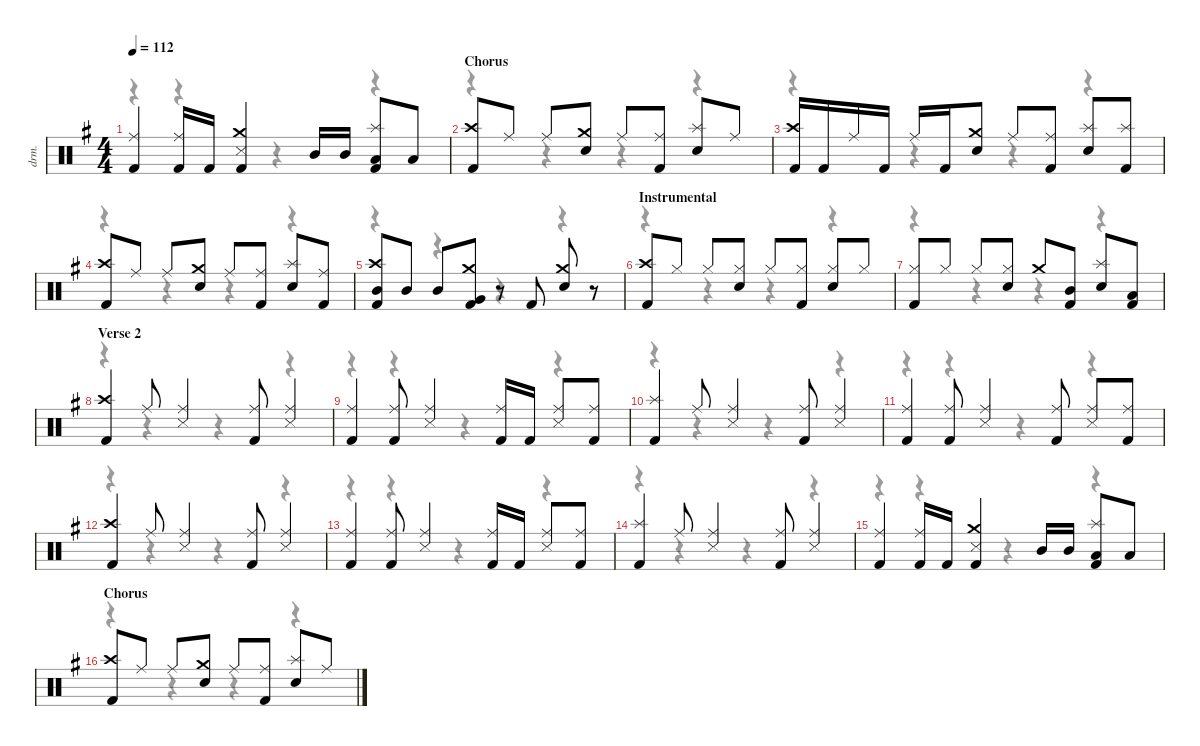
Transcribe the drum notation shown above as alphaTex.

\defaultSystemsLayout 4
\hideDynamics
\bracketExtendMode nobrackets
\track ("Drums" "drm.") {instrument percussion}
\staff {score}
\articulation defaults
\voice
\ts (4 4)
\tempo 112
\clef neutral
\ks g
("Kick (hit) 2"{acc forcenatural} "Ride (middle)"{acc forcenatural}).4{dy mf} ("Ride (middle)"{acc forcenatural} "Kick (hit) 2"{acc forcenatural}).16 "Kick (hit) 2"{acc forcenatural}.16 ("Snare (side stick) 3"{acc forcenatural} "Crash medium (hit)"{acc forcenatural} "Kick (hit) 2"{acc forcenatural}).4 "Mid Tom (hit)"{acc forcenatural}.16{dy f} "Mid Tom (hit)"{acc forcenatural}.16 ("Splash (hit)"{acc forcenatural} "Low Tom (hit)"{acc forcenatural} "Kick (hit) 2"{acc forcenatural}).8 "Low Tom (hit)"{acc forcenatural}.8 |
\section ("" "Chorus")
("Crash high (hit)"{acc forcenatural} "Kick (hit) 2"{acc forcenatural}).8{dy mf} "Ride (middle)"{acc forcenatural}.8 "Ride (middle)"{acc forcenatural}.8 ("Crash medium (hit)"{acc forcenatural} "Snare (hit) 2"{acc forcenatural}).8 "Ride (middle)"{acc forcenatural}.8 ("Ride (middle)"{acc forcenatural} "Kick (hit) 2"{acc forcenatural}).8 ("Splash (hit)"{acc forcenatural} "Snare (hit) 2"{acc forcenatural}).8 "Ride (middle)"{acc forcenatural}.8 |
("Crash high (hit)"{acc forcenatural} "Kick (hit) 2"{acc forcenatural}).16 "Kick (hit) 2"{acc forcenatural}.16{dy f} "Ride (middle)"{acc forcenatural}.16{dy mf} "Kick (hit) 2"{acc forcenatural}.16 "Ride (middle)"{acc forcenatural}.16 "Kick (hit) 2"{acc forcenatural}.16 ("Crash medium (hit)"{acc forcenatural} "Snare (hit) 2"{acc forcenatural}).8 "Ride (middle)"{acc forcenatural}.8 ("Ride (middle)"{acc forcenatural} "Kick (hit) 2"{acc forcenatural}).8 ("Splash (hit)"{acc forcenatural} "Snare (hit) 2"{acc forcenatural}).8 ("Splash (hit)"{acc forcenatural} "Kick (hit) 2"{acc forcenatural}).8 |
("Crash high (hit)"{acc forcenatural} "Kick (hit) 2"{acc forcenatural}).8 "Ride (middle)"{acc forcenatural}.8 "Ride (middle)"{acc forcenatural}.8 ("Crash medium (hit)"{acc forcenatural} "Snare (hit) 2"{acc forcenatural}).8 "Ride (middle)"{acc forcenatural}.8 ("Ride (middle)"{acc forcenatural} "Kick (hit) 2"{acc forcenatural}).8 ("Splash (hit)"{acc forcenatural} "Snare (hit) 2"{acc forcenatural}).8 ("Kick (hit) 2"{acc forcenatural} "Ride (middle)"{acc forcenatural}).8{dy f} |
("Crash high (hit)"{acc forcenatural} "Kick (hit) 2"{acc forcenatural} "Mid Tom (hit)"{acc forcenatural}).8{dy mf} "Mid Tom (hit)"{acc forcenatural}.8 "Mid Tom (hit)"{acc forcenatural}.8 ("Crash medium (hit)"{acc forcenatural} "Very Low Tom (hit)"{acc forcenatural} "Kick (hit) 2"{acc forcenatural}).8 r.8 "Kick (hit) 2"{acc forcenatural}.8 ("Crash medium (hit)"{acc forcenatural} "Snare (hit) 2"{acc forcenatural}).8 r.8 |
\section ("" "Instrumental")
("Crash high (hit)"{acc forcenatural} "Kick (hit) 2"{acc forcenatural}).8 "Hi-Hat (closed)"{acc forcenatural}.8 "Hi-Hat (closed)"{acc forcenatural}.8 ("Hi-Hat (closed)"{acc forcenatural} "Snare (hit) 2"{acc forcenatural}).8 "Hi-Hat (closed)"{acc forcenatural}.8 ("Hi-Hat (closed)"{acc forcenatural} "Kick (hit) 2"{acc forcenatural}).8 ("Hi-Hat (closed)"{acc forcenatural} "Snare (hit) 2"{acc forcenatural}).8 "Hi-Hat (closed)"{acc forcenatural}.8 |
("Hi-Hat (closed)"{acc forcenatural} "Kick (hit) 2"{acc forcenatural}).8 "Hi-Hat (closed)"{acc forcenatural}.8 "Hi-Hat (closed)"{acc forcenatural}.8 ("Hi-Hat (closed)"{acc forcenatural} "Snare (hit) 2"{acc forcenatural}).8 "Crash medium (hit)"{acc forcenatural}.8 ("Mid Tom (hit)"{acc forcenatural} "Kick (hit) 2"{acc forcenatural}).8 ("Snare (hit) 2"{acc forcenatural} "Splash (hit)"{acc forcenatural}).8 ("Low Tom (hit)"{acc forcenatural} "Kick (hit) 2"{acc forcenatural}).8 |
\section ("" "Verse 2")
("Kick (hit) 2"{acc forcenatural} "Crash high (hit)"{acc forcenatural}).4 "Ride (middle)"{acc forcenatural}.8 ("Ride (middle)"{acc forcenatural} "Snare (side stick) 3"{acc forcenatural}).4 ("Kick (hit) 2"{acc forcenatural} "Ride (middle)"{acc forcenatural}).8 ("Snare (side stick) 3"{acc forcenatural} "Ride (middle)"{acc forcenatural}).4 |
("Kick (hit) 2"{acc forcenatural} "Ride (middle)"{acc forcenatural}).4 ("Kick (hit) 2"{acc forcenatural} "Ride (middle)"{acc forcenatural}).8{dy f} ("Snare (side stick) 3"{acc forcenatural} "Ride (middle)"{acc forcenatural}).4{dy mf} ("Kick (hit) 2"{acc forcenatural} "Ride (middle)"{acc forcenatural}).16{dy f} "Kick (hit) 2"{acc forcenatural}.16{dy mf} ("Ride (middle)"{acc forcenatural} "Snare (side stick) 3"{acc forcenatural}).8 ("Kick (hit) 2"{acc forcenatural} "Ride (middle)"{acc forcenatural}).8 |
("Kick (hit) 2"{acc forcenatural} "Splash (hit)"{acc forcenatural}).4 "Ride (middle)"{acc forcenatural}.8 ("Ride (middle)"{acc forcenatural} "Snare (side stick) 3"{acc forcenatural}).4 ("Kick (hit) 2"{acc forcenatural} "Ride (middle)"{acc forcenatural}).8 ("Snare (side stick) 3"{acc forcenatural} "Ride (middle)"{acc forcenatural}).4 |
("Kick (hit) 2"{acc forcenatural} "Ride (middle)"{acc forcenatural}).4 ("Kick (hit) 2"{acc forcenatural} "Ride (middle)"{acc forcenatural}).8{dy f} ("Snare (side stick) 3"{acc forcenatural} "Ride (middle)"{acc forcenatural}).4{dy mf} ("Kick (hit) 2"{acc forcenatural} "Ride (middle)"{acc forcenatural}).8{dy f} ("Ride (middle)"{acc forcenatural} "Snare (side stick) 3"{acc forcenatural}).8{dy mf} ("Kick (hit) 2"{acc forcenatural} "Ride (middle)"{acc forcenatural}).8 |
("Kick (hit) 2"{acc forcenatural} "Crash high (hit)"{acc forcenatural}).4 "Ride (middle)"{acc forcenatural}.8 ("Ride (middle)"{acc forcenatural} "Snare (side stick) 3"{acc forcenatural}).4 ("Kick (hit) 2"{acc forcenatural} "Ride (middle)"{acc forcenatural}).8 ("Snare (side stick) 3"{acc forcenatural} "Ride (middle)"{acc forcenatural}).4 |
("Kick (hit) 2"{acc forcenatural} "Ride (middle)"{acc forcenatural}).4 ("Kick (hit) 2"{acc forcenatural} "Ride (middle)"{acc forcenatural}).8{dy f} ("Snare (side stick) 3"{acc forcenatural} "Ride (middle)"{acc forcenatural}).4{dy mf} ("Kick (hit) 2"{acc forcenatural} "Ride (middle)"{acc forcenatural}).16{dy f} "Kick (hit) 2"{acc forcenatural}.16{dy mf} ("Ride (middle)"{acc forcenatural} "Snare (side stick) 3"{acc forcenatural}).8 ("Kick (hit) 2"{acc forcenatural} "Ride (middle)"{acc forcenatural}).8 |
("Kick (hit) 2"{acc forcenatural} "Splash (hit)"{acc forcenatural}).4 "Ride (middle)"{acc forcenatural}.8 ("Ride (middle)"{acc forcenatural} "Snare (side stick) 3"{acc forcenatural}).4 ("Kick (hit) 2"{acc forcenatural} "Ride (middle)"{acc forcenatural}).8 ("Snare (side stick) 3"{acc forcenatural} "Ride (middle)"{acc forcenatural}).4 |
("Kick (hit) 2"{acc forcenatural} "Ride (middle)"{acc forcenatural}).4 ("Ride (middle)"{acc forcenatural} "Kick (hit) 2"{acc forcenatural}).16 "Kick (hit) 2"{acc forcenatural}.16 ("Snare (side stick) 3"{acc forcenatural} "Crash medium (hit)"{acc forcenatural} "Kick (hit) 2"{acc forcenatural}).4 "Mid Tom (hit)"{acc forcenatural}.16{dy f} "Mid Tom (hit)"{acc forcenatural}.16 ("Splash (hit)"{acc forcenatural} "Low Tom (hit)"{acc forcenatural} "Kick (hit) 2"{acc forcenatural}).8 "Low Tom (hit)"{acc forcenatural}.8 |
\section ("" "Chorus")
("Crash high (hit)"{acc forcenatural} "Kick (hit) 2"{acc forcenatural}).8{dy mf} "Ride (middle)"{acc forcenatural}.8 "Ride (middle)"{acc forcenatural}.8 ("Crash medium (hit)"{acc forcenatural} "Snare (hit) 2"{acc forcenatural}).8 "Ride (middle)"{acc forcenatural}.8 ("Ride (middle)"{acc forcenatural} "Kick (hit) 2"{acc forcenatural}).8 ("Splash (hit)"{acc forcenatural} "Snare (hit) 2"{acc forcenatural}).8 "Ride (middle)"{acc forcenatural}.8
\voice
\clef neutral
\ottava regular
\simile none
\ks g
r.4{dy mf} r.4 r.4 r.4 |
r.4 r.4 r.4 r.4 |
r.4 r.4 r.4 r.4 |
r.4 r.4 r.4 r.4 |
r.4 r.4 r.4 r.4 |
r.4 r.4 r.4 r.4 |
r.4 r.4 r.4 r.4 |
r.4 r.4 r.4 r.4 |
r.4 r.4 r.4 r.4 |
r.4 r.4 r.4 r.4 |
r.4 r.4 r.4 r.4 |
r.4 r.4 r.4 r.4 |
r.4 r.4 r.4 r.4 |
r.4 r.4 r.4 r.4 |
r.4 r.4 r.4 r.4 |
r.4 r.4 r.4 r.4
